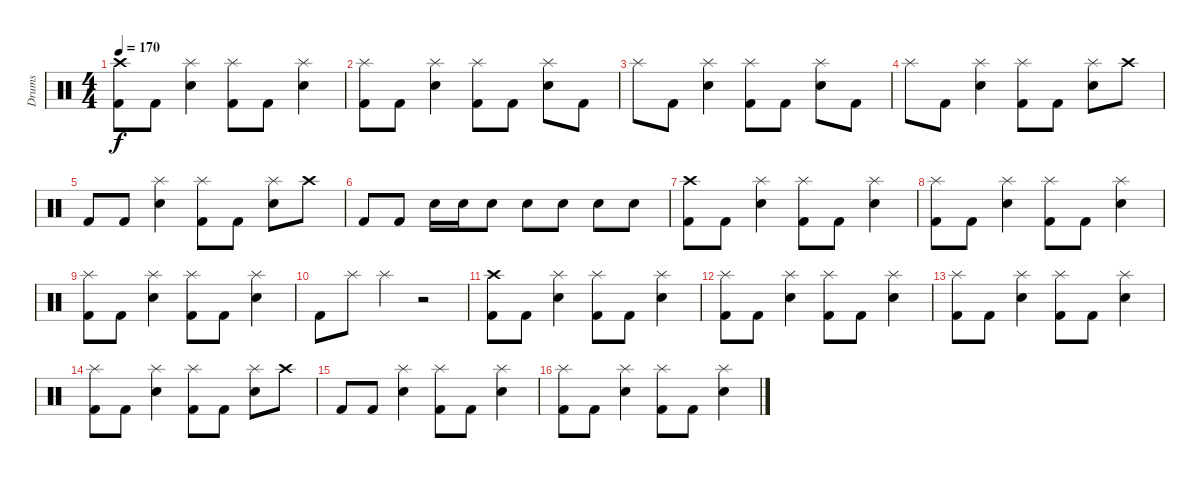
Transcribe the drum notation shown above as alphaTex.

\track ("Drums" "Drums") {instrument percussion}
\staff {score}
\articulation defaults
\ts (4 4)
\tempo 170
\clef neutral
\ks c
("Crash high (hit)" "Kick (hit) 2").8{dy f} "Kick (hit) 2".8 ("Splash (hit)" "Electric Snare (hit)").4 ("Splash (hit)" "Kick (hit) 2").8 "Kick (hit) 2".8 ("Splash (hit)" "Electric Snare (hit)").4 |
("Splash (hit)" "Kick (hit) 2").8 "Kick (hit) 2".8 ("Splash (hit)" "Electric Snare (hit)").4 ("Splash (hit)" "Kick (hit) 2").8 "Kick (hit) 2".8 ("Splash (hit)" "Electric Snare (hit)").8 "Kick (hit) 2".8 |
"Splash (hit)".8 "Kick (hit) 2".8 ("Splash (hit)" "Electric Snare (hit)").4 ("Splash (hit)" "Kick (hit) 2").8 "Kick (hit) 2".8 ("Splash (hit)" "Electric Snare (hit)").8 "Kick (hit) 2".8 |
"Splash (hit)".8 "Kick (hit) 2".8 ("Splash (hit)" "Electric Snare (hit)").4 ("Splash (hit)" "Kick (hit) 2").8 "Kick (hit) 2".8 ("Splash (hit)" "Electric Snare (hit)").8 "Crash high (hit)".8 |
"Kick (hit) 2".8 "Kick (hit) 2".8 ("Splash (hit)" "Electric Snare (hit)").4 ("Splash (hit)" "Kick (hit) 2").8 "Kick (hit) 2".8 ("Splash (hit)" "Electric Snare (hit)").8 "Crash high (hit)".8 |
"Kick (hit) 2".8 "Kick (hit) 2".8 "Electric Snare (hit)".16 "Electric Snare (hit)".16 "Electric Snare (hit)".8 "Electric Snare (hit)".8 "Electric Snare (hit)".8 "Electric Snare (hit)".8 "Electric Snare (hit)".8 |
("Crash high (hit)" "Kick (hit) 2").8 "Kick (hit) 2".8 ("Splash (hit)" "Electric Snare (hit)").4 ("Splash (hit)" "Kick (hit) 2").8 "Kick (hit) 2".8 ("Splash (hit)" "Electric Snare (hit)").4 |
("Splash (hit)" "Kick (hit) 2").8 "Kick (hit) 2".8 ("Splash (hit)" "Electric Snare (hit)").4 ("Splash (hit)" "Kick (hit) 2").8 "Kick (hit) 2".8 ("Splash (hit)" "Electric Snare (hit)").4 |
("Splash (hit)" "Kick (hit) 2").8 "Kick (hit) 2".8 ("Splash (hit)" "Electric Snare (hit)").4 ("Splash (hit)" "Kick (hit) 2").8 "Kick (hit) 2".8 ("Splash (hit)" "Electric Snare (hit)").4 |
"Kick (hit) 2".8 "Splash (hit)".8 "Splash (hit)".4 r.2 |
("Crash high (hit)" "Kick (hit) 2").8 "Kick (hit) 2".8 ("Splash (hit)" "Electric Snare (hit)").4 ("Splash (hit)" "Kick (hit) 2").8 "Kick (hit) 2".8 ("Splash (hit)" "Electric Snare (hit)").4 |
("Splash (hit)" "Kick (hit) 2").8 "Kick (hit) 2".8 ("Splash (hit)" "Electric Snare (hit)").4 ("Splash (hit)" "Kick (hit) 2").8 "Kick (hit) 2".8 ("Splash (hit)" "Electric Snare (hit)").4 |
("Splash (hit)" "Kick (hit) 2").8 "Kick (hit) 2".8 ("Splash (hit)" "Electric Snare (hit)").4 ("Splash (hit)" "Kick (hit) 2").8 "Kick (hit) 2".8 ("Splash (hit)" "Electric Snare (hit)").4 |
("Splash (hit)" "Kick (hit) 2").8 "Kick (hit) 2".8 ("Splash (hit)" "Electric Snare (hit)").4 ("Splash (hit)" "Kick (hit) 2").8 "Kick (hit) 2".8 ("Splash (hit)" "Electric Snare (hit)").8 "Crash high (hit)".8 |
"Kick (hit) 2".8 "Kick (hit) 2".8 ("Splash (hit)" "Electric Snare (hit)").4 ("Splash (hit)" "Kick (hit) 2").8 "Kick (hit) 2".8 ("Splash (hit)" "Electric Snare (hit)").4 |
("Splash (hit)" "Kick (hit) 2").8 "Kick (hit) 2".8 ("Splash (hit)" "Electric Snare (hit)").4 ("Splash (hit)" "Kick (hit) 2").8 "Kick (hit) 2".8 ("Splash (hit)" "Electric Snare (hit)").4
